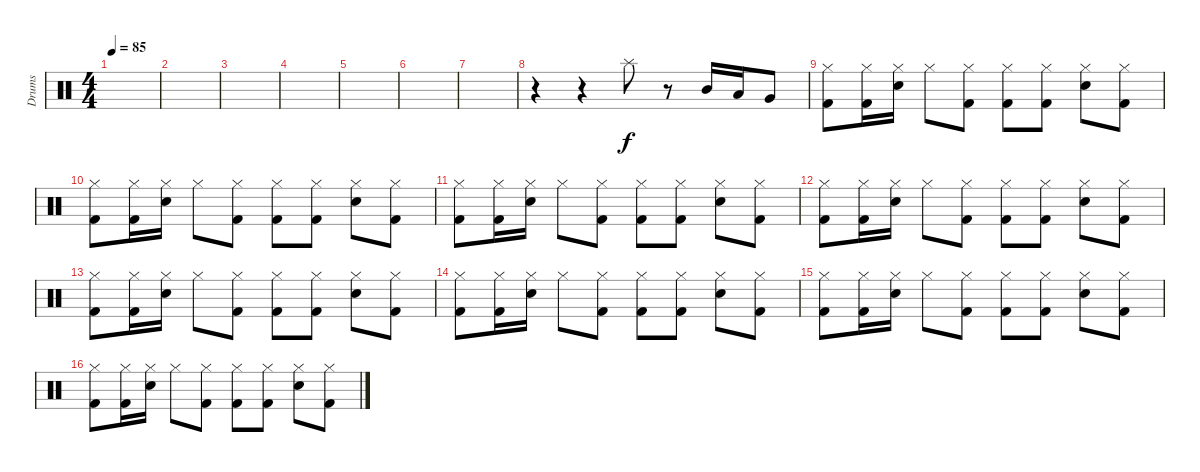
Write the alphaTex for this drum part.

\track ("Drums" "Drums") {instrument percussion}
\staff {score}
\articulation defaults
\ts (4 4)
\tempo 85
\clef neutral
\ks c
|
|
|
|
|
|
|
r.4 r.4 "Splash (hit)".8 r.8 "Mid Tom (hit)".16 "Low Tom (hit)".16 "Very Low Tom (hit)".8 |
("Hi-Hat (closed)" "Kick (hit) 2").8 ("Hi-Hat (closed)" "Kick (hit) 2").16 ("Snare (hit) 2" "Hi-Hat (closed)").16 "Hi-Hat (closed)".8 ("Hi-Hat (closed)" "Kick (hit) 2").8 ("Hi-Hat (closed)" "Kick (hit) 2").8 ("Hi-Hat (closed)" "Kick (hit) 2").8 ("Snare (hit) 2" "Hi-Hat (closed)").8 ("Hi-Hat (closed)" "Kick (hit) 2").8 |
("Hi-Hat (closed)" "Kick (hit) 2").8 ("Hi-Hat (closed)" "Kick (hit) 2").16 ("Snare (hit) 2" "Hi-Hat (closed)").16 "Hi-Hat (closed)".8 ("Hi-Hat (closed)" "Kick (hit) 2").8 ("Hi-Hat (closed)" "Kick (hit) 2").8 ("Hi-Hat (closed)" "Kick (hit) 2").8 ("Snare (hit) 2" "Hi-Hat (closed)").8 ("Hi-Hat (closed)" "Kick (hit) 2").8 |
("Hi-Hat (closed)" "Kick (hit) 2").8 ("Hi-Hat (closed)" "Kick (hit) 2").16 ("Snare (hit) 2" "Hi-Hat (closed)").16 "Hi-Hat (closed)".8 ("Hi-Hat (closed)" "Kick (hit) 2").8 ("Hi-Hat (closed)" "Kick (hit) 2").8 ("Hi-Hat (closed)" "Kick (hit) 2").8 ("Snare (hit) 2" "Hi-Hat (closed)").8 ("Hi-Hat (closed)" "Kick (hit) 2").8 |
("Hi-Hat (closed)" "Kick (hit) 2").8 ("Hi-Hat (closed)" "Kick (hit) 2").16 ("Snare (hit) 2" "Hi-Hat (closed)").16 "Hi-Hat (closed)".8 ("Hi-Hat (closed)" "Kick (hit) 2").8 ("Hi-Hat (closed)" "Kick (hit) 2").8 ("Hi-Hat (closed)" "Kick (hit) 2").8 ("Snare (hit) 2" "Hi-Hat (closed)").8 ("Hi-Hat (closed)" "Kick (hit) 2").8 |
("Hi-Hat (closed)" "Kick (hit) 2").8 ("Hi-Hat (closed)" "Kick (hit) 2").16 ("Snare (hit) 2" "Hi-Hat (closed)").16 "Hi-Hat (closed)".8 ("Hi-Hat (closed)" "Kick (hit) 2").8 ("Hi-Hat (closed)" "Kick (hit) 2").8 ("Hi-Hat (closed)" "Kick (hit) 2").8 ("Snare (hit) 2" "Hi-Hat (closed)").8 ("Hi-Hat (closed)" "Kick (hit) 2").8 |
("Hi-Hat (closed)" "Kick (hit) 2").8 ("Hi-Hat (closed)" "Kick (hit) 2").16 ("Snare (hit) 2" "Hi-Hat (closed)").16 "Hi-Hat (closed)".8 ("Hi-Hat (closed)" "Kick (hit) 2").8 ("Hi-Hat (closed)" "Kick (hit) 2").8 ("Hi-Hat (closed)" "Kick (hit) 2").8 ("Snare (hit) 2" "Hi-Hat (closed)").8 ("Hi-Hat (closed)" "Kick (hit) 2").8 |
("Hi-Hat (closed)" "Kick (hit) 2").8 ("Hi-Hat (closed)" "Kick (hit) 2").16 ("Snare (hit) 2" "Hi-Hat (closed)").16 "Hi-Hat (closed)".8 ("Hi-Hat (closed)" "Kick (hit) 2").8 ("Hi-Hat (closed)" "Kick (hit) 2").8 ("Hi-Hat (closed)" "Kick (hit) 2").8 ("Snare (hit) 2" "Hi-Hat (closed)").8 ("Hi-Hat (closed)" "Kick (hit) 2").8 |
("Hi-Hat (closed)" "Kick (hit) 2").8 ("Hi-Hat (closed)" "Kick (hit) 2").16 ("Snare (hit) 2" "Hi-Hat (closed)").16 "Hi-Hat (closed)".8 ("Hi-Hat (closed)" "Kick (hit) 2").8 ("Hi-Hat (closed)" "Kick (hit) 2").8 ("Hi-Hat (closed)" "Kick (hit) 2").8 ("Snare (hit) 2" "Hi-Hat (closed)").8 ("Hi-Hat (closed)" "Kick (hit) 2").8
